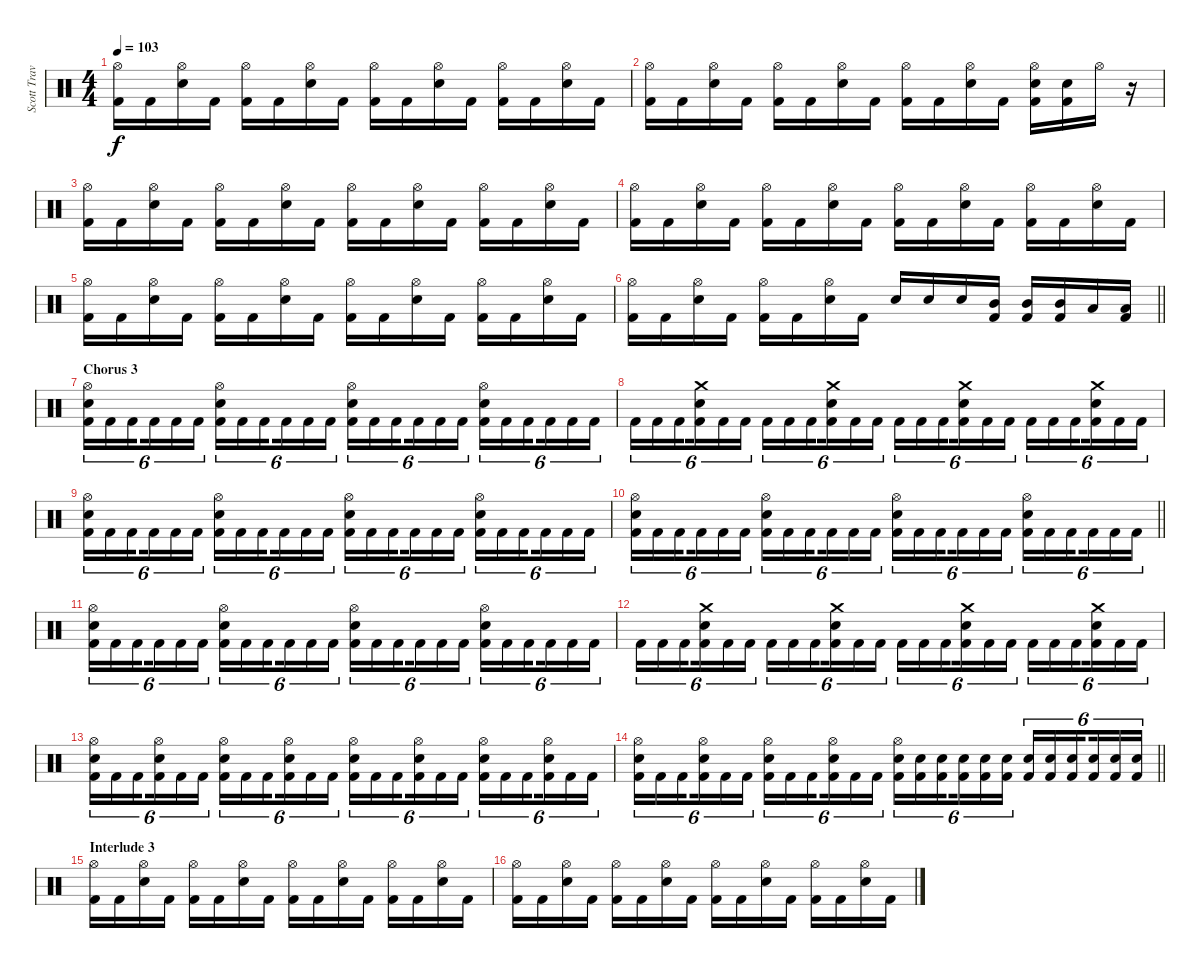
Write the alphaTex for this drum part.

\track ("Scott Travis" "Scott Trav") {instrument percussion}
\staff {score}
\articulation defaults
\ts (4 4)
\tempo 103
\clef neutral
\ks c
("Hi-Hat (open)" "Kick (hit) 2").16{dy f} "Kick (hit) 2".16 ("Hi-Hat (open)" "Snare (hit) 2").16 "Kick (hit) 2".16 ("Hi-Hat (open)" "Kick (hit) 2").16 "Kick (hit) 2".16 ("Hi-Hat (open)" "Snare (hit) 2").16 "Kick (hit) 2".16 ("Hi-Hat (open)" "Kick (hit) 2").16 "Kick (hit) 2".16 ("Hi-Hat (open)" "Snare (hit) 2").16 "Kick (hit) 2".16 ("Hi-Hat (open)" "Kick (hit) 2").16 "Kick (hit) 2".16 ("Hi-Hat (open)" "Snare (hit) 2").16 "Kick (hit) 2".16 |
("Hi-Hat (open)" "Kick (hit) 2").16 "Kick (hit) 2".16 ("Hi-Hat (open)" "Snare (hit) 2").16 "Kick (hit) 2".16 ("Hi-Hat (open)" "Kick (hit) 2").16 "Kick (hit) 2".16 ("Hi-Hat (open)" "Snare (hit) 2").16 "Kick (hit) 2".16 ("Hi-Hat (open)" "Kick (hit) 2").16 "Kick (hit) 2".16 ("Hi-Hat (open)" "Snare (hit) 2").16 "Kick (hit) 2".16 ("Hi-Hat (open)" "Snare (hit) 2" "Kick (hit) 2").16 ("Snare (hit) 2" "Kick (hit) 2").16 "Hi-Hat (open)".16 r.16 |
("Hi-Hat (open)" "Kick (hit) 2").16 "Kick (hit) 2".16 ("Hi-Hat (open)" "Snare (hit) 2").16 "Kick (hit) 2".16 ("Hi-Hat (open)" "Kick (hit) 2").16 "Kick (hit) 2".16 ("Hi-Hat (open)" "Snare (hit) 2").16 "Kick (hit) 2".16 ("Hi-Hat (open)" "Kick (hit) 2").16 "Kick (hit) 2".16 ("Hi-Hat (open)" "Snare (hit) 2").16 "Kick (hit) 2".16 ("Hi-Hat (open)" "Kick (hit) 2").16 "Kick (hit) 2".16 ("Hi-Hat (open)" "Snare (hit) 2").16 "Kick (hit) 2".16 |
("Hi-Hat (open)" "Kick (hit) 2").16 "Kick (hit) 2".16 ("Hi-Hat (open)" "Snare (hit) 2").16 "Kick (hit) 2".16 ("Hi-Hat (open)" "Kick (hit) 2").16 "Kick (hit) 2".16 ("Hi-Hat (open)" "Snare (hit) 2").16 "Kick (hit) 2".16 ("Hi-Hat (open)" "Kick (hit) 2").16 "Kick (hit) 2".16 ("Hi-Hat (open)" "Snare (hit) 2").16 "Kick (hit) 2".16 ("Hi-Hat (open)" "Kick (hit) 2").16 "Kick (hit) 2".16 ("Hi-Hat (open)" "Snare (hit) 2").16 "Kick (hit) 2".16 |
("Hi-Hat (open)" "Kick (hit) 2").16 "Kick (hit) 2".16 ("Hi-Hat (open)" "Snare (hit) 2").16 "Kick (hit) 2".16 ("Hi-Hat (open)" "Kick (hit) 2").16 "Kick (hit) 2".16 ("Hi-Hat (open)" "Snare (hit) 2").16 "Kick (hit) 2".16 ("Hi-Hat (open)" "Kick (hit) 2").16 "Kick (hit) 2".16 ("Hi-Hat (open)" "Snare (hit) 2").16 "Kick (hit) 2".16 ("Hi-Hat (open)" "Kick (hit) 2").16 "Kick (hit) 2".16 ("Hi-Hat (open)" "Snare (hit) 2").16 "Kick (hit) 2".16 |
\barLineRight lightlight
("Hi-Hat (open)" "Kick (hit) 2").16 "Kick (hit) 2".16 ("Hi-Hat (open)" "Snare (hit) 2").16 "Kick (hit) 2".16 ("Hi-Hat (open)" "Kick (hit) 2").16 "Kick (hit) 2".16 ("Hi-Hat (open)" "Snare (hit) 2").16 "Kick (hit) 2".16 "Snare (hit) 2".16 "Snare (hit) 2".16 "Snare (hit) 2".16 ("Mid Tom (hit)" "Kick (hit) 2").16 ("Mid Tom (hit)" "Kick (hit) 2").16 ("Mid Tom (hit)" "Kick (hit) 2").16 "Low Tom (hit)".16 ("Low Tom (hit)" "Kick (hit) 2").16 |
\section ("" "Chorus 3")
("Hi-Hat (open)" "Snare (hit) 2" "Kick (hit) 2").16{tu (6 4)} "Kick (hit) 2".16{tu (6 4)} "Kick (hit) 2".16{tu (6 4) beam splitsecondary} "Kick (hit) 2".16{tu (6 4)} "Kick (hit) 2".16{tu (6 4)} "Kick (hit) 2".16{tu (6 4)} ("Hi-Hat (open)" "Snare (hit) 2" "Kick (hit) 2").16{tu (6 4)} "Kick (hit) 2".16{tu (6 4)} "Kick (hit) 2".16{tu (6 4) beam splitsecondary} "Kick (hit) 2".16{tu (6 4)} "Kick (hit) 2".16{tu (6 4)} "Kick (hit) 2".16{tu (6 4)} ("Hi-Hat (open)" "Snare (hit) 2" "Kick (hit) 2").16{tu (6 4)} "Kick (hit) 2".16{tu (6 4)} "Kick (hit) 2".16{tu (6 4) beam splitsecondary} "Kick (hit) 2".16{tu (6 4)} "Kick (hit) 2".16{tu (6 4)} "Kick (hit) 2".16{tu (6 4)} ("Hi-Hat (open)" "Snare (hit) 2" "Kick (hit) 2").16{tu (6 4)} "Kick (hit) 2".16{tu (6 4)} "Kick (hit) 2".16{tu (6 4) beam splitsecondary} "Kick (hit) 2".16{tu (6 4)} "Kick (hit) 2".16{tu (6 4)} "Kick (hit) 2".16{tu (6 4)} |
"Kick (hit) 2".16{tu (6 4)} "Kick (hit) 2".16{tu (6 4)} "Kick (hit) 2".16{tu (6 4) beam splitsecondary} ("Crash medium (hit)" "Snare (hit) 2" "Kick (hit) 2").16{tu (6 4)} "Kick (hit) 2".16{tu (6 4)} "Kick (hit) 2".16{tu (6 4)} "Kick (hit) 2".16{tu (6 4)} "Kick (hit) 2".16{tu (6 4)} "Kick (hit) 2".16{tu (6 4) beam splitsecondary} ("Crash medium (hit)" "Snare (hit) 2" "Kick (hit) 2").16{tu (6 4)} "Kick (hit) 2".16{tu (6 4)} "Kick (hit) 2".16{tu (6 4)} "Kick (hit) 2".16{tu (6 4)} "Kick (hit) 2".16{tu (6 4)} "Kick (hit) 2".16{tu (6 4) beam splitsecondary} ("Crash medium (hit)" "Snare (hit) 2" "Kick (hit) 2").16{tu (6 4)} "Kick (hit) 2".16{tu (6 4)} "Kick (hit) 2".16{tu (6 4)} "Kick (hit) 2".16{tu (6 4)} "Kick (hit) 2".16{tu (6 4)} "Kick (hit) 2".16{tu (6 4) beam splitsecondary} ("Snare (hit) 2" "Crash medium (hit)" "Kick (hit) 2").16{tu (6 4)} "Kick (hit) 2".16{tu (6 4)} "Kick (hit) 2".16{tu (6 4)} |
("Hi-Hat (open)" "Snare (hit) 2" "Kick (hit) 2").16{tu (6 4)} "Kick (hit) 2".16{tu (6 4)} "Kick (hit) 2".16{tu (6 4) beam splitsecondary} "Kick (hit) 2".16{tu (6 4)} "Kick (hit) 2".16{tu (6 4)} "Kick (hit) 2".16{tu (6 4)} ("Hi-Hat (open)" "Snare (hit) 2" "Kick (hit) 2").16{tu (6 4)} "Kick (hit) 2".16{tu (6 4)} "Kick (hit) 2".16{tu (6 4) beam splitsecondary} "Kick (hit) 2".16{tu (6 4)} "Kick (hit) 2".16{tu (6 4)} "Kick (hit) 2".16{tu (6 4)} ("Hi-Hat (open)" "Snare (hit) 2" "Kick (hit) 2").16{tu (6 4)} "Kick (hit) 2".16{tu (6 4)} "Kick (hit) 2".16{tu (6 4) beam splitsecondary} "Kick (hit) 2".16{tu (6 4)} "Kick (hit) 2".16{tu (6 4)} "Kick (hit) 2".16{tu (6 4)} ("Hi-Hat (open)" "Snare (hit) 2" "Kick (hit) 2").16{tu (6 4)} "Kick (hit) 2".16{tu (6 4)} "Kick (hit) 2".16{tu (6 4) beam splitsecondary} "Kick (hit) 2".16{tu (6 4)} "Kick (hit) 2".16{tu (6 4)} "Kick (hit) 2".16{tu (6 4)} |
\barLineRight lightlight
("Hi-Hat (open)" "Snare (hit) 2" "Kick (hit) 2").16{tu (6 4)} "Kick (hit) 2".16{tu (6 4)} "Kick (hit) 2".16{tu (6 4) beam splitsecondary} "Kick (hit) 2".16{tu (6 4)} "Kick (hit) 2".16{tu (6 4)} "Kick (hit) 2".16{tu (6 4)} ("Hi-Hat (open)" "Snare (hit) 2" "Kick (hit) 2").16{tu (6 4)} "Kick (hit) 2".16{tu (6 4)} "Kick (hit) 2".16{tu (6 4) beam splitsecondary} "Kick (hit) 2".16{tu (6 4)} "Kick (hit) 2".16{tu (6 4)} "Kick (hit) 2".16{tu (6 4)} ("Hi-Hat (open)" "Snare (hit) 2" "Kick (hit) 2").16{tu (6 4)} "Kick (hit) 2".16{tu (6 4)} "Kick (hit) 2".16{tu (6 4) beam splitsecondary} "Kick (hit) 2".16{tu (6 4)} "Kick (hit) 2".16{tu (6 4)} "Kick (hit) 2".16{tu (6 4)} ("Hi-Hat (open)" "Snare (hit) 2" "Kick (hit) 2").16{tu (6 4)} "Kick (hit) 2".16{tu (6 4)} "Kick (hit) 2".16{tu (6 4) beam splitsecondary} "Kick (hit) 2".16{tu (6 4)} "Kick (hit) 2".16{tu (6 4)} "Kick (hit) 2".16{tu (6 4)} |
("Hi-Hat (open)" "Snare (hit) 2" "Kick (hit) 2").16{tu (6 4)} "Kick (hit) 2".16{tu (6 4)} "Kick (hit) 2".16{tu (6 4) beam splitsecondary} "Kick (hit) 2".16{tu (6 4)} "Kick (hit) 2".16{tu (6 4)} "Kick (hit) 2".16{tu (6 4)} ("Hi-Hat (open)" "Snare (hit) 2" "Kick (hit) 2").16{tu (6 4)} "Kick (hit) 2".16{tu (6 4)} "Kick (hit) 2".16{tu (6 4) beam splitsecondary} "Kick (hit) 2".16{tu (6 4)} "Kick (hit) 2".16{tu (6 4)} "Kick (hit) 2".16{tu (6 4)} ("Hi-Hat (open)" "Snare (hit) 2" "Kick (hit) 2").16{tu (6 4)} "Kick (hit) 2".16{tu (6 4)} "Kick (hit) 2".16{tu (6 4) beam splitsecondary} "Kick (hit) 2".16{tu (6 4)} "Kick (hit) 2".16{tu (6 4)} "Kick (hit) 2".16{tu (6 4)} ("Hi-Hat (open)" "Snare (hit) 2" "Kick (hit) 2").16{tu (6 4)} "Kick (hit) 2".16{tu (6 4)} "Kick (hit) 2".16{tu (6 4) beam splitsecondary} "Kick (hit) 2".16{tu (6 4)} "Kick (hit) 2".16{tu (6 4)} "Kick (hit) 2".16{tu (6 4)} |
"Kick (hit) 2".16{tu (6 4)} "Kick (hit) 2".16{tu (6 4)} "Kick (hit) 2".16{tu (6 4) beam splitsecondary} ("Crash medium (hit)" "Snare (hit) 2" "Kick (hit) 2").16{tu (6 4)} "Kick (hit) 2".16{tu (6 4)} "Kick (hit) 2".16{tu (6 4)} "Kick (hit) 2".16{tu (6 4)} "Kick (hit) 2".16{tu (6 4)} "Kick (hit) 2".16{tu (6 4) beam splitsecondary} ("Crash medium (hit)" "Snare (hit) 2" "Kick (hit) 2").16{tu (6 4)} "Kick (hit) 2".16{tu (6 4)} "Kick (hit) 2".16{tu (6 4)} "Kick (hit) 2".16{tu (6 4)} "Kick (hit) 2".16{tu (6 4)} "Kick (hit) 2".16{tu (6 4) beam splitsecondary} ("Crash medium (hit)" "Snare (hit) 2" "Kick (hit) 2").16{tu (6 4)} "Kick (hit) 2".16{tu (6 4)} "Kick (hit) 2".16{tu (6 4)} "Kick (hit) 2".16{tu (6 4)} "Kick (hit) 2".16{tu (6 4)} "Kick (hit) 2".16{tu (6 4) beam splitsecondary} ("Snare (hit) 2" "Crash medium (hit)" "Kick (hit) 2").16{tu (6 4)} "Kick (hit) 2".16{tu (6 4)} "Kick (hit) 2".16{tu (6 4)} |
("Hi-Hat (open)" "Snare (hit) 2" "Kick (hit) 2").16{tu (6 4)} "Kick (hit) 2".16{tu (6 4)} "Kick (hit) 2".16{tu (6 4) beam splitsecondary} ("Hi-Hat (open)" "Snare (hit) 2" "Kick (hit) 2").16{tu (6 4)} "Kick (hit) 2".16{tu (6 4)} "Kick (hit) 2".16{tu (6 4)} ("Hi-Hat (open)" "Snare (hit) 2" "Kick (hit) 2").16{tu (6 4)} "Kick (hit) 2".16{tu (6 4)} "Kick (hit) 2".16{tu (6 4) beam splitsecondary} ("Hi-Hat (open)" "Snare (hit) 2" "Kick (hit) 2").16{tu (6 4)} "Kick (hit) 2".16{tu (6 4)} "Kick (hit) 2".16{tu (6 4)} ("Hi-Hat (open)" "Snare (hit) 2" "Kick (hit) 2").16{tu (6 4)} "Kick (hit) 2".16{tu (6 4)} "Kick (hit) 2".16{tu (6 4) beam splitsecondary} ("Hi-Hat (open)" "Snare (hit) 2" "Kick (hit) 2").16{tu (6 4)} "Kick (hit) 2".16{tu (6 4)} "Kick (hit) 2".16{tu (6 4)} ("Hi-Hat (open)" "Snare (hit) 2" "Kick (hit) 2").16{tu (6 4)} "Kick (hit) 2".16{tu (6 4)} "Kick (hit) 2".16{tu (6 4) beam splitsecondary} ("Hi-Hat (open)" "Snare (hit) 2" "Kick (hit) 2").16{tu (6 4)} "Kick (hit) 2".16{tu (6 4)} "Kick (hit) 2".16{tu (6 4)} |
\barLineRight lightlight
("Hi-Hat (open)" "Snare (hit) 2" "Kick (hit) 2").16{tu (6 4)} "Kick (hit) 2".16{tu (6 4)} "Kick (hit) 2".16{tu (6 4) beam splitsecondary} ("Snare (hit) 2" "Hi-Hat (open)" "Kick (hit) 2").16{tu (6 4)} "Kick (hit) 2".16{tu (6 4)} "Kick (hit) 2".16{tu (6 4)} ("Hi-Hat (open)" "Snare (hit) 2" "Kick (hit) 2").16{tu (6 4)} "Kick (hit) 2".16{tu (6 4)} "Kick (hit) 2".16{tu (6 4) beam splitsecondary} ("Hi-Hat (open)" "Snare (hit) 2" "Kick (hit) 2").16{tu (6 4)} "Kick (hit) 2".16{tu (6 4)} "Kick (hit) 2".16{tu (6 4)} ("Hi-Hat (open)" "Snare (hit) 2" "Kick (hit) 2").16{tu (6 4)} ("Snare (hit) 2" "Kick (hit) 2").16{tu (6 4)} ("Snare (hit) 2" "Kick (hit) 2").16{tu (6 4) beam splitsecondary} ("Snare (hit) 2" "Kick (hit) 2").16{tu (6 4)} ("Snare (hit) 2" "Kick (hit) 2").16{tu (6 4)} ("Snare (hit) 2" "Kick (hit) 2").16{tu (6 4)} ("Snare (hit) 2" "Kick (hit) 2").16{tu (6 4)} ("Snare (hit) 2" "Kick (hit) 2").16{tu (6 4)} ("Snare (hit) 2" "Kick (hit) 2").16{tu (6 4) beam splitsecondary} ("Snare (hit) 2" "Kick (hit) 2").16{tu (6 4)} ("Snare (hit) 2" "Kick (hit) 2").16{tu (6 4)} ("Snare (hit) 2" "Kick (hit) 2").16{tu (6 4)} |
\section ("" "Interlude 3")
("Hi-Hat (open)" "Kick (hit) 2").16 "Kick (hit) 2".16 ("Hi-Hat (open)" "Snare (hit) 2").16 "Kick (hit) 2".16 ("Hi-Hat (open)" "Kick (hit) 2").16 "Kick (hit) 2".16 ("Hi-Hat (open)" "Snare (hit) 2").16 "Kick (hit) 2".16 ("Hi-Hat (open)" "Kick (hit) 2").16 "Kick (hit) 2".16 ("Hi-Hat (open)" "Snare (hit) 2").16 "Kick (hit) 2".16 ("Hi-Hat (open)" "Kick (hit) 2").16 "Kick (hit) 2".16 ("Hi-Hat (open)" "Snare (hit) 2").16 "Kick (hit) 2".16 |
("Hi-Hat (open)" "Kick (hit) 2").16 "Kick (hit) 2".16 ("Hi-Hat (open)" "Snare (hit) 2").16 "Kick (hit) 2".16 ("Hi-Hat (open)" "Kick (hit) 2").16 "Kick (hit) 2".16 ("Hi-Hat (open)" "Snare (hit) 2").16 "Kick (hit) 2".16 ("Hi-Hat (open)" "Kick (hit) 2").16 "Kick (hit) 2".16 ("Hi-Hat (open)" "Snare (hit) 2").16 "Kick (hit) 2".16 ("Hi-Hat (open)" "Kick (hit) 2").16 "Kick (hit) 2".16 ("Hi-Hat (open)" "Snare (hit) 2").16 "Kick (hit) 2".16
